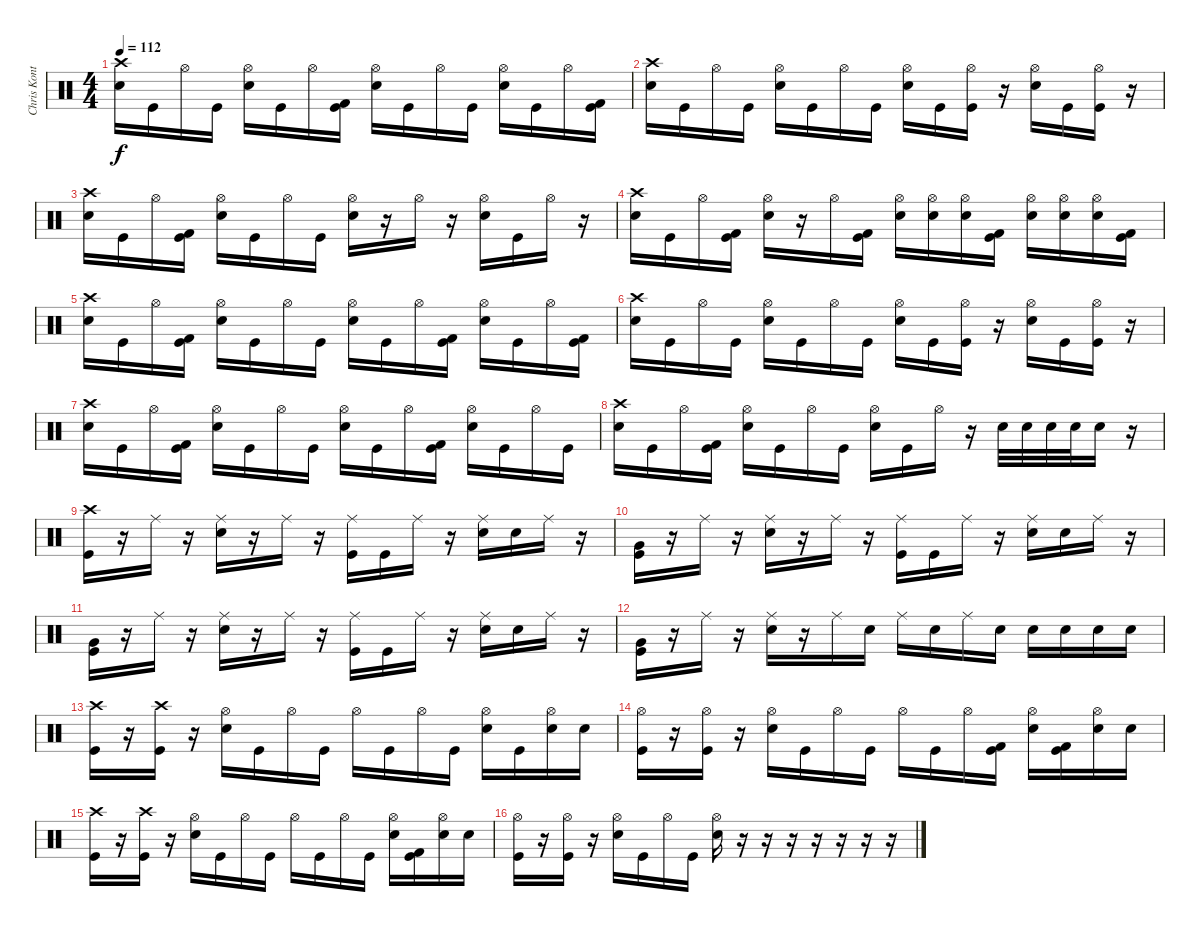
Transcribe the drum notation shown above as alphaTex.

\track ("Chris Kontos - Drums" "Chris Kont") {instrument percussion}
\staff {score}
\articulation defaults
\ts (4 4)
\tempo 112
\clef neutral
\ks c
("Crash high (hit)" "Snare (hit) 2").16{dy f} "Kick (hit)".16 "Hi-Hat (open)".16 "Kick (hit)".16 ("Hi-Hat (open)" "Snare (hit) 2").16 "Kick (hit)".16 "Hi-Hat (open)".16 ("Kick (hit) 2" "Kick (hit)").16 ("Hi-Hat (open)" "Snare (hit) 2").16 "Kick (hit)".16 "Hi-Hat (open)".16 "Kick (hit)".16 ("Hi-Hat (open)" "Snare (hit) 2").16 "Kick (hit)".16 "Hi-Hat (open)".16 ("Kick (hit) 2" "Kick (hit)").16 |
("Crash high (hit)" "Snare (hit) 2").16 "Kick (hit)".16 "Hi-Hat (open)".16 "Kick (hit)".16 ("Hi-Hat (open)" "Snare (hit) 2").16 "Kick (hit)".16 "Hi-Hat (open)".16 "Kick (hit)".16 ("Hi-Hat (open)" "Snare (hit) 2").16 "Kick (hit)".16 ("Hi-Hat (open)" "Kick (hit)").16 r.16 ("Hi-Hat (open)" "Snare (hit) 2").16 "Kick (hit)".16 ("Hi-Hat (open)" "Kick (hit)").16 r.16 |
("Crash high (hit)" "Snare (hit) 2").16 "Kick (hit)".16 "Hi-Hat (open)".16 ("Kick (hit) 2" "Kick (hit)").16 ("Hi-Hat (open)" "Snare (hit) 2").16 "Kick (hit)".16 "Hi-Hat (open)".16 "Kick (hit)".16 ("Hi-Hat (open)" "Snare (hit) 2").16 r.16 "Hi-Hat (open)".16 r.16 ("Hi-Hat (open)" "Snare (hit) 2").16 "Kick (hit)".16 "Hi-Hat (open)".16 r.16 |
("Crash high (hit)" "Snare (hit) 2").16 "Kick (hit)".16 "Hi-Hat (open)".16 ("Kick (hit) 2" "Kick (hit)").16 ("Hi-Hat (open)" "Snare (hit) 2").16 r.16 "Hi-Hat (open)".16 ("Kick (hit)" "Kick (hit) 2").16 ("Hi-Hat (open)" "Snare (hit) 2").16 ("Hi-Hat (open)" "Snare (hit) 2").16 ("Hi-Hat (open)" "Snare (hit) 2").16 ("Kick (hit)" "Kick (hit) 2").16 ("Hi-Hat (open)" "Snare (hit) 2").16 ("Hi-Hat (open)" "Snare (hit) 2").16 ("Hi-Hat (open)" "Snare (hit) 2").16 ("Kick (hit) 2" "Kick (hit)").16 |
("Crash high (hit)" "Snare (hit) 2").16 "Kick (hit)".16 "Hi-Hat (open)".16 ("Kick (hit) 2" "Kick (hit)").16 ("Hi-Hat (open)" "Snare (hit) 2").16 "Kick (hit)".16 "Hi-Hat (open)".16 "Kick (hit)".16 ("Hi-Hat (open)" "Snare (hit) 2").16 "Kick (hit)".16 "Hi-Hat (open)".16 ("Kick (hit) 2" "Kick (hit)").16 ("Hi-Hat (open)" "Snare (hit) 2").16 "Kick (hit)".16 "Hi-Hat (open)".16 ("Kick (hit) 2" "Kick (hit)").16 |
("Crash high (hit)" "Snare (hit) 2").16 "Kick (hit)".16 "Hi-Hat (open)".16 "Kick (hit)".16 ("Hi-Hat (open)" "Snare (hit) 2").16 "Kick (hit)".16 "Hi-Hat (open)".16 "Kick (hit)".16 ("Hi-Hat (open)" "Snare (hit) 2").16 "Kick (hit)".16 ("Hi-Hat (open)" "Kick (hit)").16 r.16 ("Hi-Hat (open)" "Snare (hit) 2").16 "Kick (hit)".16 ("Hi-Hat (open)" "Kick (hit)").16 r.16 |
("Crash high (hit)" "Snare (hit) 2").16 "Kick (hit)".16 "Hi-Hat (open)".16 ("Kick (hit) 2" "Kick (hit)").16 ("Hi-Hat (open)" "Snare (hit) 2").16 "Kick (hit)".16 "Hi-Hat (open)".16 "Kick (hit)".16 ("Hi-Hat (open)" "Snare (hit) 2").16 "Kick (hit)".16 "Hi-Hat (open)".16 ("Kick (hit) 2" "Kick (hit)").16 ("Hi-Hat (open)" "Snare (hit) 2").16 "Kick (hit)".16 "Hi-Hat (open)".16 "Kick (hit)".16 |
("Crash high (hit)" "Snare (hit) 2").16 "Kick (hit)".16 "Hi-Hat (open)".16 ("Kick (hit) 2" "Kick (hit)").16 ("Hi-Hat (open)" "Snare (hit) 2").16 "Kick (hit)".16 "Hi-Hat (open)".16 "Kick (hit)".16 ("Hi-Hat (open)" "Snare (hit) 2").16 "Kick (hit)".16 "Hi-Hat (open)".16 r.16 "Snare (hit) 2".32 "Snare (hit) 2".32 "Snare (hit) 2".32 "Snare (hit) 2".32 "Snare (hit) 2".16 r.16 |
("Crash high (hit)" "Kick (hit)").16 r.16 "Ride (middle)".16 r.16 ("Ride (middle)" "Snare (hit) 2").16 r.16 "Ride (middle)".16 r.16 ("Ride (middle)" "Kick (hit)").16 "Kick (hit)".16 "Ride (middle)".16 r.16 ("Ride (middle)" "Snare (hit) 2").16 "Snare (hit) 2".16 "Ride (middle)".16 r.16 |
("Very Low Tom (hit)" "Kick (hit)").16 r.16 "Ride (middle)".16 r.16 ("Ride (middle)" "Snare (hit) 2").16 r.16 "Ride (middle)".16 r.16 ("Ride (middle)" "Kick (hit)").16 "Kick (hit)".16 "Ride (middle)".16 r.16 ("Ride (middle)" "Snare (hit) 2").16 "Snare (hit) 2".16 "Ride (middle)".16 r.16 |
("Very Low Tom (hit)" "Kick (hit)").16 r.16 "Ride (middle)".16 r.16 ("Ride (middle)" "Snare (hit) 2").16 r.16 "Ride (middle)".16 r.16 ("Ride (middle)" "Kick (hit)").16 "Kick (hit)".16 "Ride (middle)".16 r.16 ("Ride (middle)" "Snare (hit) 2").16 "Snare (hit) 2".16 "Ride (middle)".16 r.16 |
("Very Low Tom (hit)" "Kick (hit)").16 r.16 "Ride (middle)".16 r.16 ("Ride (middle)" "Snare (hit) 2").16 r.16 "Ride (middle)".16 "Snare (hit) 2".16 "Ride (middle)".16 "Snare (hit) 2".16 "Ride (middle)".16 "Snare (hit) 2".16 "Snare (hit) 2".16 "Snare (hit) 2".16 "Snare (hit) 2".16 "Snare (hit) 2".16 |
("Crash high (hit)" "Kick (hit)").16 r.16 ("Crash high (hit)" "Kick (hit)").16 r.16 ("Hi-Hat (open)" "Snare (hit) 2").16 "Kick (hit)".16 "Hi-Hat (open)".16 "Kick (hit)".16 "Hi-Hat (open)".16 "Kick (hit)".16 "Hi-Hat (open)".16 "Kick (hit)".16 ("Hi-Hat (open)" "Snare (hit) 2").16 "Kick (hit)".16 ("Hi-Hat (open)" "Snare (hit) 2").16 "Snare (hit) 2".16 |
("Hi-Hat (open)" "Kick (hit)").16 r.16 ("Hi-Hat (open)" "Kick (hit)").16 r.16 ("Hi-Hat (open)" "Snare (hit) 2").16 "Kick (hit)".16 "Hi-Hat (open)".16 "Kick (hit)".16 "Hi-Hat (open)".16 "Kick (hit)".16 "Hi-Hat (open)".16 ("Kick (hit) 2" "Kick (hit)").16 ("Hi-Hat (open)" "Snare (hit) 2").16 ("Kick (hit) 2" "Kick (hit)").16 ("Hi-Hat (open)" "Snare (hit) 2").16 "Snare (hit) 2".16 |
("Crash high (hit)" "Kick (hit)").16 r.16 ("Crash high (hit)" "Kick (hit)").16 r.16 ("Hi-Hat (open)" "Snare (hit) 2").16 "Kick (hit)".16 "Hi-Hat (open)".16 "Kick (hit)".16 "Hi-Hat (open)".16 "Kick (hit)".16 "Hi-Hat (open)".16 "Kick (hit)".16 ("Hi-Hat (open)" "Snare (hit) 2").16 ("Kick (hit) 2" "Kick (hit)").16 ("Hi-Hat (open)" "Snare (hit) 2").16 "Snare (hit) 2".16 |
("Hi-Hat (open)" "Kick (hit)").16 r.16 ("Hi-Hat (open)" "Kick (hit)").16 r.16 ("Hi-Hat (open)" "Snare (hit) 2").16 "Kick (hit)".16 "Hi-Hat (open)".16 "Kick (hit)".16 ("Hi-Hat (open)" "Snare (hit) 2").16 r.16 r.16 r.16 r.16 r.16 r.16 r.16
